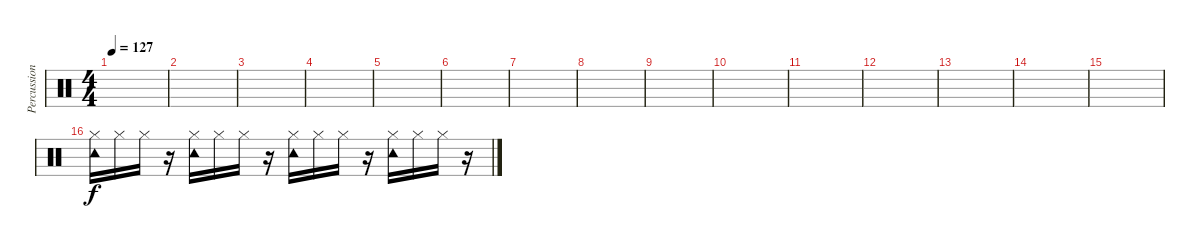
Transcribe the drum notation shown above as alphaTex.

\track ("Percussions" "Percussion") {instrument percussion}
\staff {score}
\articulation defaults
\ts (4 4)
\tempo 127
\clef neutral
\ks c
|
|
|
|
|
|
|
|
|
|
|
|
|
|
|
("Tambourine (hit)" "Hi-Hat (closed)").16 "Hi-Hat (closed)".16 "Hi-Hat (closed)".16 r.16 ("Tambourine (hit)" "Hi-Hat (closed)").16 "Hi-Hat (closed)".16 "Hi-Hat (closed)".16 r.16 ("Tambourine (hit)" "Hi-Hat (closed)").16 "Hi-Hat (closed)".16 "Hi-Hat (closed)".16 r.16 ("Tambourine (hit)" "Hi-Hat (closed)").16 "Hi-Hat (closed)".16 "Hi-Hat (closed)".16 r.16
